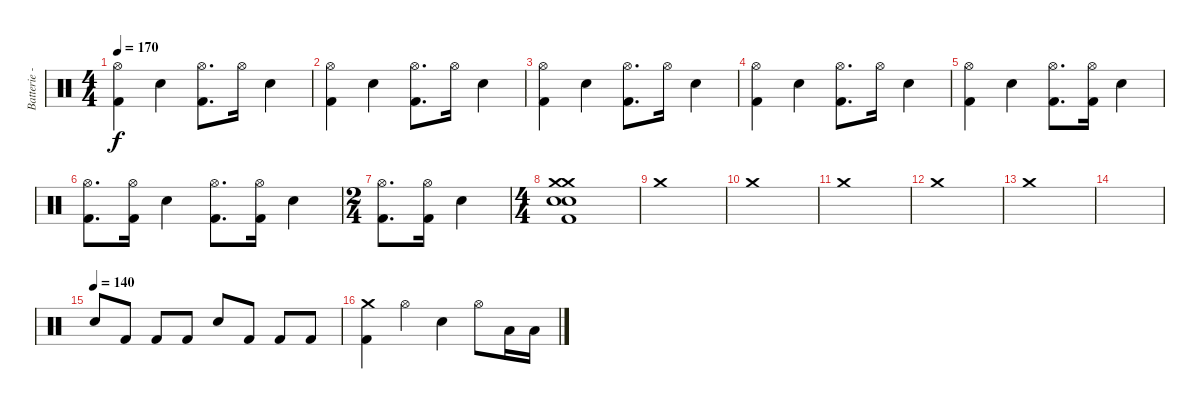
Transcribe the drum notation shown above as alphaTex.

\track ("Batterie - Anders Johansson" "Batterie -") {instrument percussion}
\staff {score}
\articulation defaults
\ts (4 4)
\tempo 170
\clef neutral
\ks c
("Hi-Hat (open)" "Kick (hit) 2").4{dy f} "Electric Snare (hit)".4 ("Hi-Hat (open)" "Kick (hit) 2").8{d} "Hi-Hat (open)".16 "Electric Snare (hit)".4 |
("Hi-Hat (open)" "Kick (hit) 2").4 "Electric Snare (hit)".4 ("Hi-Hat (open)" "Kick (hit) 2").8{d} "Hi-Hat (open)".16 "Electric Snare (hit)".4 |
("Hi-Hat (open)" "Kick (hit) 2").4 "Electric Snare (hit)".4 ("Hi-Hat (open)" "Kick (hit) 2").8{d} "Hi-Hat (open)".16 "Electric Snare (hit)".4 |
("Hi-Hat (open)" "Kick (hit) 2").4 "Electric Snare (hit)".4 ("Hi-Hat (open)" "Kick (hit) 2").8{d} "Hi-Hat (open)".16 "Electric Snare (hit)".4 |
("Hi-Hat (open)" "Kick (hit) 2").4 "Electric Snare (hit)".4 ("Hi-Hat (open)" "Kick (hit) 2").8{d} ("Hi-Hat (open)" "Kick (hit) 2").16 "Electric Snare (hit)".4 |
("Hi-Hat (open)" "Kick (hit) 2").8{d} ("Hi-Hat (open)" "Kick (hit) 2").16 "Electric Snare (hit)".4 ("Hi-Hat (open)" "Kick (hit) 2").8{d} ("Hi-Hat (open)" "Kick (hit) 2").16 "Electric Snare (hit)".4 |
\ts (2 4)
("Hi-Hat (open)" "Kick (hit) 2").8{d} ("Hi-Hat (open)" "Kick (hit) 2").16 "Electric Snare (hit)".4 |
\ts (4 4)
("Crash medium (hit)" "Crash medium (hit)" "Electric Snare (hit)" "Electric Snare (hit)" "Kick (hit) 2").1 |
"Crash medium (hit)".1 |
"Crash medium (hit)".1 |
"Crash medium (hit)".1 |
"Crash medium (hit)".1 |
"Crash medium (hit)".1 |
|
\tempo (140)
"Electric Snare (hit)".8 "Kick (hit) 2".8 "Kick (hit) 2".8 "Kick (hit) 2".8 "Electric Snare (hit)".8 "Kick (hit) 2".8 "Kick (hit) 2".8 "Kick (hit) 2".8 |
("Crash medium (hit)" "Kick (hit) 2").4 "Hi-Hat (open)".4 "Electric Snare (hit)".4 "Hi-Hat (open)".8 "Low Tom (hit)".16 "Low Tom (hit)".16
